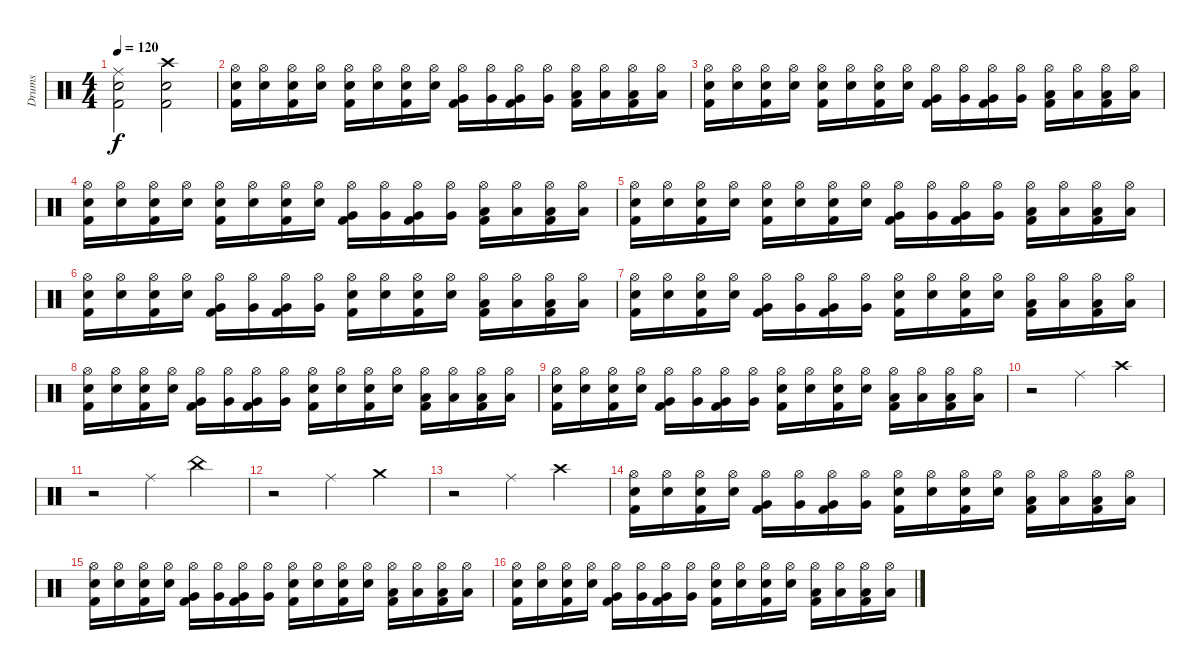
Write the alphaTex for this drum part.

\track ("Drums" "Drums") {instrument percussion}
\staff {score}
\articulation defaults
\ts (4 4)
\tempo 120
\clef neutral
\ks c
("Ride (middle)" "Snare (hit) 2" "Kick (hit) 2").2{dy f} ("Crash high (hit)" "Snare (hit) 2" "Kick (hit) 2").2 |
("Hi-Hat (open)" "Snare (hit) 2" "Kick (hit) 2").16 ("Hi-Hat (open)" "Snare (hit) 2").16 ("Hi-Hat (open)" "Snare (hit) 2" "Kick (hit) 2").16 ("Hi-Hat (open)" "Snare (hit) 2").16 ("Hi-Hat (open)" "Snare (hit) 2" "Kick (hit) 2").16 ("Hi-Hat (open)" "Snare (hit) 2").16 ("Hi-Hat (open)" "Snare (hit) 2" "Kick (hit) 2").16 ("Hi-Hat (open)" "Snare (hit) 2").16 ("Hi-Hat (open)" "Very Low Tom (hit)" "Kick (hit) 2").16 ("Hi-Hat (open)" "Very Low Tom (hit)").16 ("Hi-Hat (open)" "Very Low Tom (hit)" "Kick (hit) 2").16 ("Hi-Hat (open)" "Very Low Tom (hit)").16 ("Hi-Hat (open)" "Low Tom (hit)" "Kick (hit) 2").16 ("Hi-Hat (open)" "Low Tom (hit)").16 ("Hi-Hat (open)" "Low Tom (hit)" "Kick (hit) 2").16 ("Hi-Hat (open)" "Low Tom (hit)").16 |
("Hi-Hat (open)" "Snare (hit) 2" "Kick (hit) 2").16 ("Hi-Hat (open)" "Snare (hit) 2").16 ("Hi-Hat (open)" "Snare (hit) 2" "Kick (hit) 2").16 ("Hi-Hat (open)" "Snare (hit) 2").16 ("Hi-Hat (open)" "Snare (hit) 2" "Kick (hit) 2").16 ("Hi-Hat (open)" "Snare (hit) 2").16 ("Hi-Hat (open)" "Snare (hit) 2" "Kick (hit) 2").16 ("Hi-Hat (open)" "Snare (hit) 2").16 ("Hi-Hat (open)" "Very Low Tom (hit)" "Kick (hit) 2").16 ("Hi-Hat (open)" "Very Low Tom (hit)").16 ("Hi-Hat (open)" "Very Low Tom (hit)" "Kick (hit) 2").16 ("Hi-Hat (open)" "Very Low Tom (hit)").16 ("Hi-Hat (open)" "Low Tom (hit)" "Kick (hit) 2").16 ("Hi-Hat (open)" "Low Tom (hit)").16 ("Hi-Hat (open)" "Low Tom (hit)" "Kick (hit) 2").16 ("Hi-Hat (open)" "Low Tom (hit)").16 |
("Hi-Hat (open)" "Snare (hit) 2" "Kick (hit) 2").16 ("Hi-Hat (open)" "Snare (hit) 2").16 ("Hi-Hat (open)" "Snare (hit) 2" "Kick (hit) 2").16 ("Hi-Hat (open)" "Snare (hit) 2").16 ("Hi-Hat (open)" "Snare (hit) 2" "Kick (hit) 2").16 ("Hi-Hat (open)" "Snare (hit) 2").16 ("Hi-Hat (open)" "Snare (hit) 2" "Kick (hit) 2").16 ("Hi-Hat (open)" "Snare (hit) 2").16 ("Hi-Hat (open)" "Very Low Tom (hit)" "Kick (hit) 2").16 ("Hi-Hat (open)" "Very Low Tom (hit)").16 ("Hi-Hat (open)" "Very Low Tom (hit)" "Kick (hit) 2").16 ("Hi-Hat (open)" "Very Low Tom (hit)").16 ("Hi-Hat (open)" "Low Tom (hit)" "Kick (hit) 2").16 ("Hi-Hat (open)" "Low Tom (hit)").16 ("Hi-Hat (open)" "Low Tom (hit)" "Kick (hit) 2").16 ("Hi-Hat (open)" "Low Tom (hit)").16 |
("Hi-Hat (open)" "Snare (hit) 2" "Kick (hit) 2").16 ("Hi-Hat (open)" "Snare (hit) 2").16 ("Hi-Hat (open)" "Snare (hit) 2" "Kick (hit) 2").16 ("Hi-Hat (open)" "Snare (hit) 2").16 ("Hi-Hat (open)" "Snare (hit) 2" "Kick (hit) 2").16 ("Hi-Hat (open)" "Snare (hit) 2").16 ("Hi-Hat (open)" "Snare (hit) 2" "Kick (hit) 2").16 ("Hi-Hat (open)" "Snare (hit) 2").16 ("Hi-Hat (open)" "Very Low Tom (hit)" "Kick (hit) 2").16 ("Hi-Hat (open)" "Very Low Tom (hit)").16 ("Hi-Hat (open)" "Very Low Tom (hit)" "Kick (hit) 2").16 ("Hi-Hat (open)" "Very Low Tom (hit)").16 ("Hi-Hat (open)" "Low Tom (hit)" "Kick (hit) 2").16 ("Hi-Hat (open)" "Low Tom (hit)").16 ("Hi-Hat (open)" "Low Tom (hit)" "Kick (hit) 2").16 ("Hi-Hat (open)" "Low Tom (hit)").16 |
("Hi-Hat (open)" "Snare (hit) 2" "Kick (hit) 2").16 ("Hi-Hat (open)" "Snare (hit) 2").16 ("Hi-Hat (open)" "Snare (hit) 2" "Kick (hit) 2").16 ("Hi-Hat (open)" "Snare (hit) 2").16 ("Hi-Hat (open)" "Very Low Tom (hit)" "Kick (hit) 2").16 ("Hi-Hat (open)" "Very Low Tom (hit)").16 ("Hi-Hat (open)" "Very Low Tom (hit)" "Kick (hit) 2").16 ("Hi-Hat (open)" "Very Low Tom (hit)").16 ("Hi-Hat (open)" "Snare (hit) 2" "Kick (hit) 2").16 ("Hi-Hat (open)" "Snare (hit) 2").16 ("Hi-Hat (open)" "Snare (hit) 2" "Kick (hit) 2").16 ("Hi-Hat (open)" "Snare (hit) 2").16 ("Hi-Hat (open)" "Low Tom (hit)" "Kick (hit) 2").16 ("Hi-Hat (open)" "Low Tom (hit)").16 ("Hi-Hat (open)" "Low Tom (hit)" "Kick (hit) 2").16 ("Hi-Hat (open)" "Low Tom (hit)").16 |
("Hi-Hat (open)" "Snare (hit) 2" "Kick (hit) 2").16 ("Hi-Hat (open)" "Snare (hit) 2").16 ("Hi-Hat (open)" "Snare (hit) 2" "Kick (hit) 2").16 ("Hi-Hat (open)" "Snare (hit) 2").16 ("Hi-Hat (open)" "Very Low Tom (hit)" "Kick (hit) 2").16 ("Hi-Hat (open)" "Very Low Tom (hit)").16 ("Hi-Hat (open)" "Very Low Tom (hit)" "Kick (hit) 2").16 ("Hi-Hat (open)" "Very Low Tom (hit)").16 ("Hi-Hat (open)" "Snare (hit) 2" "Kick (hit) 2").16 ("Hi-Hat (open)" "Snare (hit) 2").16 ("Hi-Hat (open)" "Snare (hit) 2" "Kick (hit) 2").16 ("Hi-Hat (open)" "Snare (hit) 2").16 ("Hi-Hat (open)" "Low Tom (hit)" "Kick (hit) 2").16 ("Hi-Hat (open)" "Low Tom (hit)").16 ("Hi-Hat (open)" "Low Tom (hit)" "Kick (hit) 2").16 ("Hi-Hat (open)" "Low Tom (hit)").16 |
("Hi-Hat (open)" "Snare (hit) 2" "Kick (hit) 2").16 ("Hi-Hat (open)" "Snare (hit) 2").16 ("Hi-Hat (open)" "Snare (hit) 2" "Kick (hit) 2").16 ("Hi-Hat (open)" "Snare (hit) 2").16 ("Hi-Hat (open)" "Very Low Tom (hit)" "Kick (hit) 2").16 ("Hi-Hat (open)" "Very Low Tom (hit)").16 ("Hi-Hat (open)" "Very Low Tom (hit)" "Kick (hit) 2").16 ("Hi-Hat (open)" "Very Low Tom (hit)").16 ("Hi-Hat (open)" "Snare (hit) 2" "Kick (hit) 2").16 ("Hi-Hat (open)" "Snare (hit) 2").16 ("Hi-Hat (open)" "Snare (hit) 2" "Kick (hit) 2").16 ("Hi-Hat (open)" "Snare (hit) 2").16 ("Hi-Hat (open)" "Low Tom (hit)" "Kick (hit) 2").16 ("Hi-Hat (open)" "Low Tom (hit)").16 ("Hi-Hat (open)" "Low Tom (hit)" "Kick (hit) 2").16 ("Hi-Hat (open)" "Low Tom (hit)").16 |
("Hi-Hat (open)" "Snare (hit) 2" "Kick (hit) 2").16 ("Hi-Hat (open)" "Snare (hit) 2").16 ("Hi-Hat (open)" "Snare (hit) 2" "Kick (hit) 2").16 ("Hi-Hat (open)" "Snare (hit) 2").16 ("Hi-Hat (open)" "Very Low Tom (hit)" "Kick (hit) 2").16 ("Hi-Hat (open)" "Very Low Tom (hit)").16 ("Hi-Hat (open)" "Very Low Tom (hit)" "Kick (hit) 2").16 ("Hi-Hat (open)" "Very Low Tom (hit)").16 ("Hi-Hat (open)" "Snare (hit) 2" "Kick (hit) 2").16 ("Hi-Hat (open)" "Snare (hit) 2").16 ("Hi-Hat (open)" "Snare (hit) 2" "Kick (hit) 2").16 ("Hi-Hat (open)" "Snare (hit) 2").16 ("Hi-Hat (open)" "Low Tom (hit)" "Kick (hit) 2").16 ("Hi-Hat (open)" "Low Tom (hit)").16 ("Hi-Hat (open)" "Low Tom (hit)" "Kick (hit) 2").16 ("Hi-Hat (open)" "Low Tom (hit)").16 |
r.2 "Ride (middle)".4 "Crash high (hit)".4 |
r.2 "Ride (middle)".4 "China (hit)".4 |
r.2 "Ride (middle)".4 "Crash medium (hit)".4 |
r.2 "Ride (middle)".4 "Crash high (hit)".4 |
("Hi-Hat (open)" "Snare (hit) 2" "Kick (hit) 2").16 ("Hi-Hat (open)" "Snare (hit) 2").16 ("Hi-Hat (open)" "Snare (hit) 2" "Kick (hit) 2").16 ("Hi-Hat (open)" "Snare (hit) 2").16 ("Hi-Hat (open)" "Very Low Tom (hit)" "Kick (hit) 2").16 ("Hi-Hat (open)" "Very Low Tom (hit)").16 ("Hi-Hat (open)" "Very Low Tom (hit)" "Kick (hit) 2").16 ("Hi-Hat (open)" "Very Low Tom (hit)").16 ("Hi-Hat (open)" "Snare (hit) 2" "Kick (hit) 2").16 ("Hi-Hat (open)" "Snare (hit) 2").16 ("Hi-Hat (open)" "Snare (hit) 2" "Kick (hit) 2").16 ("Hi-Hat (open)" "Snare (hit) 2").16 ("Hi-Hat (open)" "Low Tom (hit)" "Kick (hit) 2").16 ("Hi-Hat (open)" "Low Tom (hit)").16 ("Hi-Hat (open)" "Low Tom (hit)" "Kick (hit) 2").16 ("Hi-Hat (open)" "Low Tom (hit)").16 |
("Hi-Hat (open)" "Snare (hit) 2" "Kick (hit) 2").16 ("Hi-Hat (open)" "Snare (hit) 2").16 ("Hi-Hat (open)" "Snare (hit) 2" "Kick (hit) 2").16 ("Hi-Hat (open)" "Snare (hit) 2").16 ("Hi-Hat (open)" "Very Low Tom (hit)" "Kick (hit) 2").16 ("Hi-Hat (open)" "Very Low Tom (hit)").16 ("Hi-Hat (open)" "Very Low Tom (hit)" "Kick (hit) 2").16 ("Hi-Hat (open)" "Very Low Tom (hit)").16 ("Hi-Hat (open)" "Snare (hit) 2" "Kick (hit) 2").16 ("Hi-Hat (open)" "Snare (hit) 2").16 ("Hi-Hat (open)" "Snare (hit) 2" "Kick (hit) 2").16 ("Hi-Hat (open)" "Snare (hit) 2").16 ("Hi-Hat (open)" "Low Tom (hit)" "Kick (hit) 2").16 ("Hi-Hat (open)" "Low Tom (hit)").16 ("Hi-Hat (open)" "Low Tom (hit)" "Kick (hit) 2").16 ("Hi-Hat (open)" "Low Tom (hit)").16 |
("Hi-Hat (open)" "Snare (hit) 2" "Kick (hit) 2").16 ("Hi-Hat (open)" "Snare (hit) 2").16 ("Hi-Hat (open)" "Snare (hit) 2" "Kick (hit) 2").16 ("Hi-Hat (open)" "Snare (hit) 2").16 ("Hi-Hat (open)" "Very Low Tom (hit)" "Kick (hit) 2").16 ("Hi-Hat (open)" "Very Low Tom (hit)").16 ("Hi-Hat (open)" "Very Low Tom (hit)" "Kick (hit) 2").16 ("Hi-Hat (open)" "Very Low Tom (hit)").16 ("Hi-Hat (open)" "Snare (hit) 2" "Kick (hit) 2").16 ("Hi-Hat (open)" "Snare (hit) 2").16 ("Hi-Hat (open)" "Snare (hit) 2" "Kick (hit) 2").16 ("Hi-Hat (open)" "Snare (hit) 2").16 ("Hi-Hat (open)" "Low Tom (hit)" "Kick (hit) 2").16 ("Hi-Hat (open)" "Low Tom (hit)").16 ("Hi-Hat (open)" "Low Tom (hit)" "Kick (hit) 2").16 ("Hi-Hat (open)" "Low Tom (hit)").16
